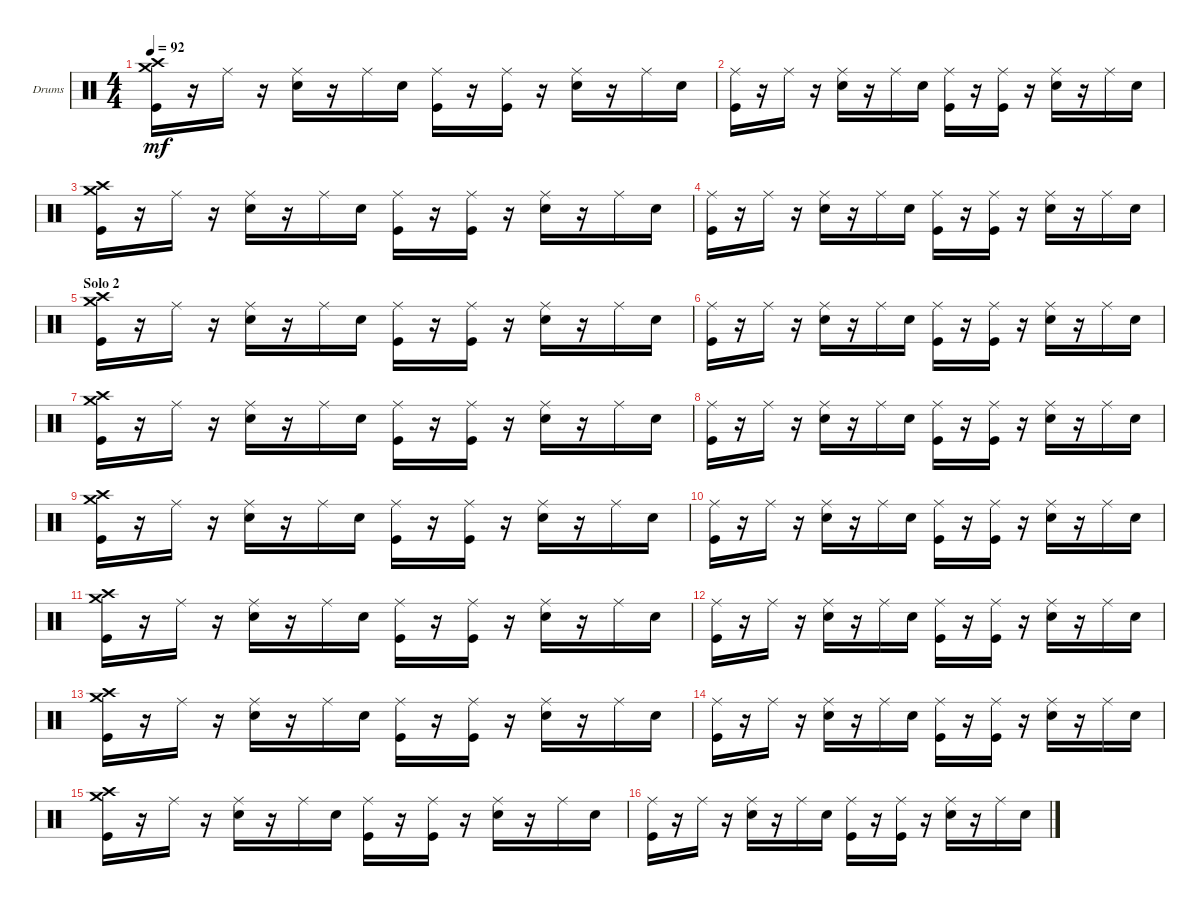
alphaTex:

\defaultSystemsLayout 4
\bracketExtendMode groupsimilarinstruments
\firstSystemTrackNameOrientation horizontal
\otherSystemsTrackNameOrientation horizontal
\track ("Drums" "Drums") {instrument percussion}
\staff {score}
\articulation defaults
\ts (4 4)
\tempo 92
\clef neutral
\ks c
("Crash medium (hit)" "Crash high (hit)" "Kick (hit)").16{dy mf} r.16 "Ride (middle)".16 r.16 ("Ride (middle)" "Snare (hit) 2").16 r.16 "Ride (middle)".16 "Snare (hit) 2".16 ("Ride (middle)" "Kick (hit)").16 r.16 ("Ride (middle)" "Kick (hit)").16 r.16 ("Ride (middle)" "Snare (hit) 2").16 r.16 "Ride (middle)".16 "Snare (hit) 2".16 |
("Ride (middle)" "Kick (hit)").16 r.16 "Ride (middle)".16 r.16 ("Ride (middle)" "Snare (hit) 2").16 r.16 "Ride (middle)".16 "Snare (hit) 2".16 ("Ride (middle)" "Kick (hit)").16 r.16 ("Ride (middle)" "Kick (hit)").16 r.16 ("Ride (middle)" "Snare (hit) 2").16 r.16 "Ride (middle)".16 "Snare (hit) 2".16 |
("Crash medium (hit)" "Crash high (hit)" "Kick (hit)").16 r.16 "Ride (middle)".16 r.16 ("Ride (middle)" "Snare (hit) 2").16 r.16 "Ride (middle)".16 "Snare (hit) 2".16 ("Ride (middle)" "Kick (hit)").16 r.16 ("Ride (middle)" "Kick (hit)").16 r.16 ("Ride (middle)" "Snare (hit) 2").16 r.16 "Ride (middle)".16 "Snare (hit) 2".16 |
("Ride (middle)" "Kick (hit)").16 r.16 "Ride (middle)".16 r.16 ("Ride (middle)" "Snare (hit) 2").16 r.16 "Ride (middle)".16 "Snare (hit) 2".16 ("Ride (middle)" "Kick (hit)").16 r.16 ("Ride (middle)" "Kick (hit)").16 r.16 ("Ride (middle)" "Snare (hit) 2").16 r.16 "Ride (middle)".16 "Snare (hit) 2".16 |
\section ("" "Solo 2")
\tempo (92 hide)
("Crash medium (hit)" "Crash high (hit)" "Kick (hit)").16 r.16 "Ride (middle)".16 r.16 ("Ride (middle)" "Snare (hit) 2").16 r.16 "Ride (middle)".16 "Snare (hit) 2".16 ("Ride (middle)" "Kick (hit)").16 r.16 ("Ride (middle)" "Kick (hit)").16 r.16 ("Ride (middle)" "Snare (hit) 2").16 r.16 "Ride (middle)".16 "Snare (hit) 2".16 |
("Ride (middle)" "Kick (hit)").16 r.16 "Ride (middle)".16 r.16 ("Ride (middle)" "Snare (hit) 2").16 r.16 "Ride (middle)".16 "Snare (hit) 2".16 ("Ride (middle)" "Kick (hit)").16 r.16 ("Ride (middle)" "Kick (hit)").16 r.16 ("Ride (middle)" "Snare (hit) 2").16 r.16 "Ride (middle)".16 "Snare (hit) 2".16 |
("Crash medium (hit)" "Crash high (hit)" "Kick (hit)").16 r.16 "Ride (middle)".16 r.16 ("Ride (middle)" "Snare (hit) 2").16 r.16 "Ride (middle)".16 "Snare (hit) 2".16 ("Ride (middle)" "Kick (hit)").16 r.16 ("Ride (middle)" "Kick (hit)").16 r.16 ("Ride (middle)" "Snare (hit) 2").16 r.16 "Ride (middle)".16 "Snare (hit) 2".16 |
("Ride (middle)" "Kick (hit)").16 r.16 "Ride (middle)".16 r.16 ("Ride (middle)" "Snare (hit) 2").16 r.16 "Ride (middle)".16 "Snare (hit) 2".16 ("Ride (middle)" "Kick (hit)").16 r.16 ("Ride (middle)" "Kick (hit)").16 r.16 ("Ride (middle)" "Snare (hit) 2").16 r.16 "Ride (middle)".16 "Snare (hit) 2".16 |
("Crash medium (hit)" "Crash high (hit)" "Kick (hit)").16 r.16 "Ride (middle)".16 r.16 ("Ride (middle)" "Snare (hit) 2").16 r.16 "Ride (middle)".16 "Snare (hit) 2".16 ("Ride (middle)" "Kick (hit)").16 r.16 ("Ride (middle)" "Kick (hit)").16 r.16 ("Ride (middle)" "Snare (hit) 2").16 r.16 "Ride (middle)".16 "Snare (hit) 2".16 |
("Ride (middle)" "Kick (hit)").16 r.16 "Ride (middle)".16 r.16 ("Ride (middle)" "Snare (hit) 2").16 r.16 "Ride (middle)".16 "Snare (hit) 2".16 ("Ride (middle)" "Kick (hit)").16 r.16 ("Ride (middle)" "Kick (hit)").16 r.16 ("Ride (middle)" "Snare (hit) 2").16 r.16 "Ride (middle)".16 "Snare (hit) 2".16 |
("Crash medium (hit)" "Crash high (hit)" "Kick (hit)").16 r.16 "Ride (middle)".16 r.16 ("Ride (middle)" "Snare (hit) 2").16 r.16 "Ride (middle)".16 "Snare (hit) 2".16 ("Ride (middle)" "Kick (hit)").16 r.16 ("Ride (middle)" "Kick (hit)").16 r.16 ("Ride (middle)" "Snare (hit) 2").16 r.16 "Ride (middle)".16 "Snare (hit) 2".16 |
("Ride (middle)" "Kick (hit)").16 r.16 "Ride (middle)".16 r.16 ("Ride (middle)" "Snare (hit) 2").16 r.16 "Ride (middle)".16 "Snare (hit) 2".16 ("Ride (middle)" "Kick (hit)").16 r.16 ("Ride (middle)" "Kick (hit)").16 r.16 ("Ride (middle)" "Snare (hit) 2").16 r.16 "Ride (middle)".16 "Snare (hit) 2".16 |
("Crash medium (hit)" "Crash high (hit)" "Kick (hit)").16 r.16 "Ride (middle)".16 r.16 ("Ride (middle)" "Snare (hit) 2").16 r.16 "Ride (middle)".16 "Snare (hit) 2".16 ("Ride (middle)" "Kick (hit)").16 r.16 ("Ride (middle)" "Kick (hit)").16 r.16 ("Ride (middle)" "Snare (hit) 2").16 r.16 "Ride (middle)".16 "Snare (hit) 2".16 |
("Ride (middle)" "Kick (hit)").16 r.16 "Ride (middle)".16 r.16 ("Ride (middle)" "Snare (hit) 2").16 r.16 "Ride (middle)".16 "Snare (hit) 2".16 ("Ride (middle)" "Kick (hit)").16 r.16 ("Ride (middle)" "Kick (hit)").16 r.16 ("Ride (middle)" "Snare (hit) 2").16 r.16 "Ride (middle)".16 "Snare (hit) 2".16 |
("Crash medium (hit)" "Crash high (hit)" "Kick (hit)").16 r.16 "Ride (middle)".16 r.16 ("Ride (middle)" "Snare (hit) 2").16 r.16 "Ride (middle)".16 "Snare (hit) 2".16 ("Ride (middle)" "Kick (hit)").16 r.16 ("Ride (middle)" "Kick (hit)").16 r.16 ("Ride (middle)" "Snare (hit) 2").16 r.16 "Ride (middle)".16 "Snare (hit) 2".16 |
("Ride (middle)" "Kick (hit)").16 r.16 "Ride (middle)".16 r.16 ("Ride (middle)" "Snare (hit) 2").16 r.16 "Ride (middle)".16 "Snare (hit) 2".16 ("Ride (middle)" "Kick (hit)").16 r.16 ("Ride (middle)" "Kick (hit)").16 r.16 ("Ride (middle)" "Snare (hit) 2").16 r.16 "Ride (middle)".16 "Snare (hit) 2".16
